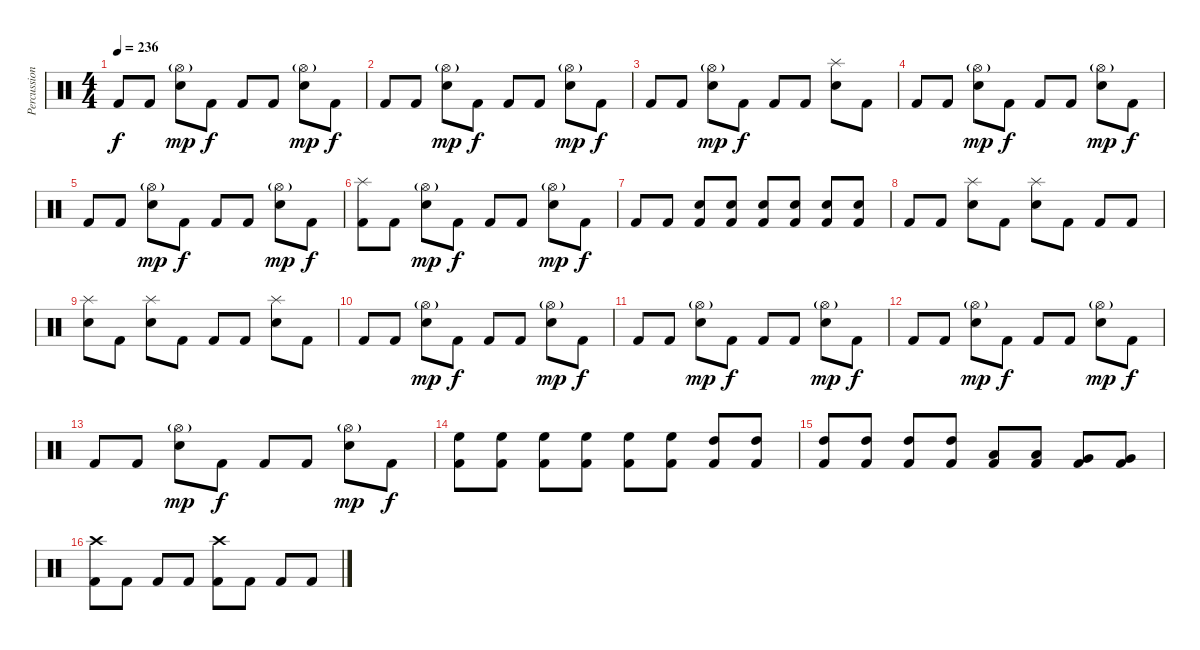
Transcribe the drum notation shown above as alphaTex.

\track ("Percussion" "Percussion") {instrument percussion}
\staff {score}
\articulation defaults
\ts (4 4)
\tempo 236
\clef neutral
\ks c "Kick (hit) 2".8{dy f} "Kick (hit) 2".8
("Hi-Hat (open)"{g} "Electric Snare (hit)").8{dy mp} "Kick (hit) 2".8{dy f} "Kick (hit) 2".8 "Kick (hit) 2".8 ("Hi-Hat (open)"{g} "Electric Snare (hit)").8{dy mp} "Kick (hit) 2".8{dy f} |
"Kick (hit) 2".8 "Kick (hit) 2".8 ("Hi-Hat (open)"{g} "Electric Snare (hit)").8{dy mp} "Kick (hit) 2".8{dy f} "Kick (hit) 2".8 "Kick (hit) 2".8 ("Hi-Hat (open)"{g} "Electric Snare (hit)").8{dy mp} "Kick (hit) 2".8{dy f} |
"Kick (hit) 2".8 "Kick (hit) 2".8 ("Hi-Hat (open)"{g} "Electric Snare (hit)").8{dy mp} "Kick (hit) 2".8{dy f} "Kick (hit) 2".8 "Kick (hit) 2".8 ("Splash (hit)" "Electric Snare (hit)").8 "Kick (hit) 2".8 |
"Kick (hit) 2".8 "Kick (hit) 2".8 ("Hi-Hat (open)"{g} "Electric Snare (hit)").8{dy mp} "Kick (hit) 2".8{dy f} "Kick (hit) 2".8 "Kick (hit) 2".8 ("Hi-Hat (open)"{g} "Electric Snare (hit)").8{dy mp} "Kick (hit) 2".8{dy f} |
"Kick (hit) 2".8 "Kick (hit) 2".8 ("Hi-Hat (open)"{g} "Electric Snare (hit)").8{dy mp} "Kick (hit) 2".8{dy f} "Kick (hit) 2".8 "Kick (hit) 2".8 ("Hi-Hat (open)"{g} "Electric Snare (hit)").8{dy mp} "Kick (hit) 2".8{dy f} |
("Splash (hit)" "Kick (hit) 2").8 "Kick (hit) 2".8 ("Hi-Hat (open)"{g} "Electric Snare (hit)").8{dy mp} "Kick (hit) 2".8{dy f} "Kick (hit) 2".8 "Kick (hit) 2".8 ("Hi-Hat (open)"{g} "Electric Snare (hit)").8{dy mp} "Kick (hit) 2".8{dy f} |
"Kick (hit) 2".8 "Kick (hit) 2".8 ("Electric Snare (hit)" "Kick (hit) 2").8 ("Electric Snare (hit)" "Kick (hit) 2").8 ("Electric Snare (hit)" "Kick (hit) 2").8 ("Electric Snare (hit)" "Kick (hit) 2").8 ("Electric Snare (hit)" "Kick (hit) 2").8 ("Electric Snare (hit)" "Kick (hit) 2").8 |
"Kick (hit) 2".8 "Kick (hit) 2".8 ("Splash (hit)" "Electric Snare (hit)").8 "Kick (hit) 2".8 ("Splash (hit)" "Electric Snare (hit)").8 "Kick (hit) 2".8 "Kick (hit) 2".8 "Kick (hit) 2".8 |
("Splash (hit)" "Electric Snare (hit)").8 "Kick (hit) 2".8 ("Splash (hit)" "Electric Snare (hit)").8 "Kick (hit) 2".8 "Kick (hit) 2".8 "Kick (hit) 2".8 ("Splash (hit)" "Electric Snare (hit)").8 "Kick (hit) 2".8 |
"Kick (hit) 2".8 "Kick (hit) 2".8 ("Hi-Hat (open)"{g} "Electric Snare (hit)").8{dy mp} "Kick (hit) 2".8{dy f} "Kick (hit) 2".8 "Kick (hit) 2".8 ("Hi-Hat (open)"{g} "Electric Snare (hit)").8{dy mp} "Kick (hit) 2".8{dy f} |
"Kick (hit) 2".8 "Kick (hit) 2".8 ("Hi-Hat (open)"{g} "Electric Snare (hit)").8{dy mp} "Kick (hit) 2".8{dy f} "Kick (hit) 2".8 "Kick (hit) 2".8 ("Hi-Hat (open)"{g} "Electric Snare (hit)").8{dy mp} "Kick (hit) 2".8{dy f} |
"Kick (hit) 2".8 "Kick (hit) 2".8 ("Hi-Hat (open)"{g} "Electric Snare (hit)").8{dy mp} "Kick (hit) 2".8{dy f} "Kick (hit) 2".8 "Kick (hit) 2".8 ("Hi-Hat (open)"{g} "Electric Snare (hit)").8{dy mp} "Kick (hit) 2".8{dy f} |
"Kick (hit) 2".8 "Kick (hit) 2".8 ("Hi-Hat (open)"{g} "Electric Snare (hit)").8{dy mp} "Kick (hit) 2".8{dy f} "Kick (hit) 2".8 "Kick (hit) 2".8 ("Hi-Hat (open)"{g} "Electric Snare (hit)").8{dy mp} "Kick (hit) 2".8{dy f} |
("High Floor Tom (hit)" "Kick (hit) 2").8 ("High Floor Tom (hit)" "Kick (hit) 2").8 ("High Floor Tom (hit)" "Kick (hit) 2").8 ("High Floor Tom (hit)" "Kick (hit) 2").8 ("High Floor Tom (hit)" "Kick (hit) 2").8 ("High Floor Tom (hit)" "Kick (hit) 2").8 ("High Tom (hit)" "Kick (hit) 2").8 ("High Tom (hit)" "Kick (hit) 2").8 |
("High Tom (hit)" "Kick (hit) 2").8 ("High Tom (hit)" "Kick (hit) 2").8 ("High Tom (hit)" "Kick (hit) 2").8 ("High Tom (hit)" "Kick (hit) 2").8 ("Low Tom (hit)" "Kick (hit) 2").8 ("Low Tom (hit)" "Kick (hit) 2").8 ("Very Low Tom (hit)" "Kick (hit) 2").8 ("Very Low Tom (hit)" "Kick (hit) 2").8 |
("Crash high (hit)" "Kick (hit) 2").8 "Kick (hit) 2".8 "Kick (hit) 2".8 "Kick (hit) 2".8 ("Crash high (hit)" "Kick (hit) 2").8 "Kick (hit) 2".8 "Kick (hit) 2".8 "Kick (hit) 2".8
